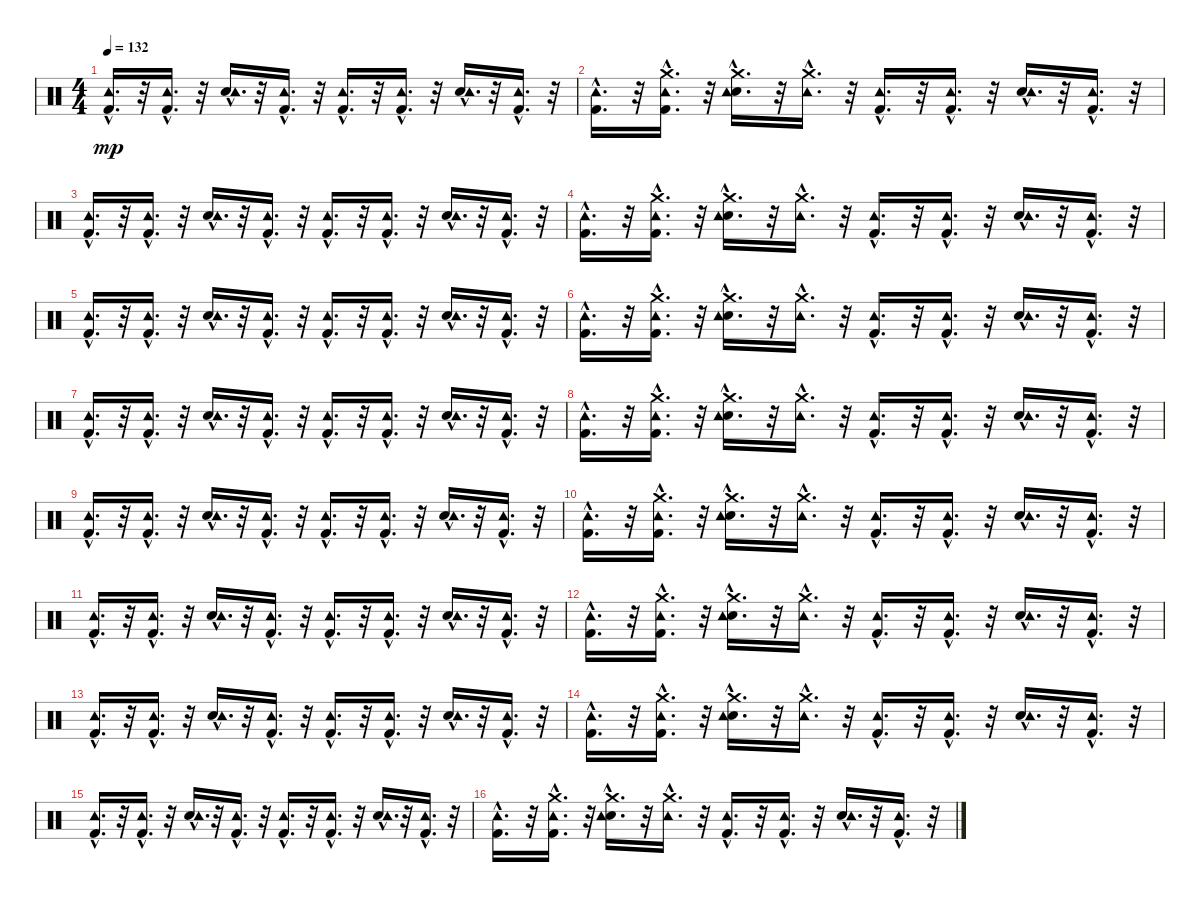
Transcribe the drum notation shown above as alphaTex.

\track "" {instrument percussion}
\staff {score}
\articulation defaults
\ts (4 4)
\tempo 132
\clef neutral
\ks c
("Kick (hit) 2"{hac} "Tambourine (hit)"{hac}).16{d dy mp} r.32 ("Kick (hit) 2"{hac} "Tambourine (hit)"{hac}).16{d} r.32 ("Snare (hit) 2"{hac} "Tambourine (hit)"{hac}).16{d} r.32 ("Kick (hit) 2"{hac} "Tambourine (hit)"{hac}).16{d} r.32 ("Kick (hit) 2"{hac} "Tambourine (hit)"{hac}).16{d} r.32 ("Kick (hit) 2"{hac} "Tambourine (hit)"{hac}).16{d} r.32 ("Snare (hit) 2"{hac} "Tambourine (hit)"{hac}).16{d} r.32 ("Kick (hit) 2"{hac} "Tambourine (hit)"{hac}).16{d} r.32 |
("Kick (hit) 2"{hac} "Tambourine (hit)"{hac}).16{d} r.32 ("Crash medium (hit)"{hac} "Kick (hit) 2"{hac} "Tambourine (hit)"{hac}).16{d} r.32 ("Crash medium (hit)"{hac} "Snare (hit) 2"{hac} "Tambourine (hit)"{hac}).16{d} r.32 ("Crash medium (hit)"{hac} "Tambourine (hit)"{hac}).16{d} r.32 ("Kick (hit) 2"{hac} "Tambourine (hit)"{hac}).16{d} r.32 ("Kick (hit) 2"{hac} "Tambourine (hit)"{hac}).16{d} r.32 ("Snare (hit) 2"{hac} "Tambourine (hit)"{hac}).16{d} r.32 ("Kick (hit) 2"{hac} "Tambourine (hit)"{hac}).16{d} r.32 |
("Kick (hit) 2"{hac} "Tambourine (hit)"{hac}).16{d} r.32 ("Kick (hit) 2"{hac} "Tambourine (hit)"{hac}).16{d} r.32 ("Snare (hit) 2"{hac} "Tambourine (hit)"{hac}).16{d} r.32 ("Kick (hit) 2"{hac} "Tambourine (hit)"{hac}).16{d} r.32 ("Kick (hit) 2"{hac} "Tambourine (hit)"{hac}).16{d} r.32 ("Kick (hit) 2"{hac} "Tambourine (hit)"{hac}).16{d} r.32 ("Snare (hit) 2"{hac} "Tambourine (hit)"{hac}).16{d} r.32 ("Kick (hit) 2"{hac} "Tambourine (hit)"{hac}).16{d} r.32 |
("Kick (hit) 2"{hac} "Tambourine (hit)"{hac}).16{d} r.32 ("Crash medium (hit)"{hac} "Kick (hit) 2"{hac} "Tambourine (hit)"{hac}).16{d} r.32 ("Crash medium (hit)"{hac} "Snare (hit) 2"{hac} "Tambourine (hit)"{hac}).16{d} r.32 ("Crash medium (hit)"{hac} "Tambourine (hit)"{hac}).16{d} r.32 ("Kick (hit) 2"{hac} "Tambourine (hit)"{hac}).16{d} r.32 ("Kick (hit) 2"{hac} "Tambourine (hit)"{hac}).16{d} r.32 ("Snare (hit) 2"{hac} "Tambourine (hit)"{hac}).16{d} r.32 ("Kick (hit) 2"{hac} "Tambourine (hit)"{hac}).16{d} r.32 |
("Kick (hit) 2"{hac} "Tambourine (hit)"{hac}).16{d} r.32 ("Kick (hit) 2"{hac} "Tambourine (hit)"{hac}).16{d} r.32 ("Snare (hit) 2"{hac} "Tambourine (hit)"{hac}).16{d} r.32 ("Kick (hit) 2"{hac} "Tambourine (hit)"{hac}).16{d} r.32 ("Kick (hit) 2"{hac} "Tambourine (hit)"{hac}).16{d} r.32 ("Kick (hit) 2"{hac} "Tambourine (hit)"{hac}).16{d} r.32 ("Snare (hit) 2"{hac} "Tambourine (hit)"{hac}).16{d} r.32 ("Kick (hit) 2"{hac} "Tambourine (hit)"{hac}).16{d} r.32 |
("Kick (hit) 2"{hac} "Tambourine (hit)"{hac}).16{d} r.32 ("Crash medium (hit)"{hac} "Kick (hit) 2"{hac} "Tambourine (hit)"{hac}).16{d} r.32 ("Crash medium (hit)"{hac} "Snare (hit) 2"{hac} "Tambourine (hit)"{hac}).16{d} r.32 ("Crash medium (hit)"{hac} "Tambourine (hit)"{hac}).16{d} r.32 ("Kick (hit) 2"{hac} "Tambourine (hit)"{hac}).16{d} r.32 ("Kick (hit) 2"{hac} "Tambourine (hit)"{hac}).16{d} r.32 ("Snare (hit) 2"{hac} "Tambourine (hit)"{hac}).16{d} r.32 ("Kick (hit) 2"{hac} "Tambourine (hit)"{hac}).16{d} r.32 |
("Kick (hit) 2"{hac} "Tambourine (hit)"{hac}).16{d} r.32 ("Kick (hit) 2"{hac} "Tambourine (hit)"{hac}).16{d} r.32 ("Snare (hit) 2"{hac} "Tambourine (hit)"{hac}).16{d} r.32 ("Kick (hit) 2"{hac} "Tambourine (hit)"{hac}).16{d} r.32 ("Kick (hit) 2"{hac} "Tambourine (hit)"{hac}).16{d} r.32 ("Kick (hit) 2"{hac} "Tambourine (hit)"{hac}).16{d} r.32 ("Snare (hit) 2"{hac} "Tambourine (hit)"{hac}).16{d} r.32 ("Kick (hit) 2"{hac} "Tambourine (hit)"{hac}).16{d} r.32 |
("Kick (hit) 2"{hac} "Tambourine (hit)"{hac}).16{d} r.32 ("Crash medium (hit)"{hac} "Kick (hit) 2"{hac} "Tambourine (hit)"{hac}).16{d} r.32 ("Crash medium (hit)"{hac} "Snare (hit) 2"{hac} "Tambourine (hit)"{hac}).16{d} r.32 ("Crash medium (hit)"{hac} "Tambourine (hit)"{hac}).16{d} r.32 ("Kick (hit) 2"{hac} "Tambourine (hit)"{hac}).16{d} r.32 ("Kick (hit) 2"{hac} "Tambourine (hit)"{hac}).16{d} r.32 ("Snare (hit) 2"{hac} "Tambourine (hit)"{hac}).16{d} r.32 ("Kick (hit) 2"{hac} "Tambourine (hit)"{hac}).16{d} r.32 |
("Kick (hit) 2"{hac} "Tambourine (hit)"{hac}).16{d} r.32 ("Kick (hit) 2"{hac} "Tambourine (hit)"{hac}).16{d} r.32 ("Snare (hit) 2"{hac} "Tambourine (hit)"{hac}).16{d} r.32 ("Kick (hit) 2"{hac} "Tambourine (hit)"{hac}).16{d} r.32 ("Kick (hit) 2"{hac} "Tambourine (hit)"{hac}).16{d} r.32 ("Kick (hit) 2"{hac} "Tambourine (hit)"{hac}).16{d} r.32 ("Snare (hit) 2"{hac} "Tambourine (hit)"{hac}).16{d} r.32 ("Kick (hit) 2"{hac} "Tambourine (hit)"{hac}).16{d} r.32 |
("Kick (hit) 2"{hac} "Tambourine (hit)"{hac}).16{d} r.32 ("Crash medium (hit)"{hac} "Kick (hit) 2"{hac} "Tambourine (hit)"{hac}).16{d} r.32 ("Crash medium (hit)"{hac} "Snare (hit) 2"{hac} "Tambourine (hit)"{hac}).16{d} r.32 ("Crash medium (hit)"{hac} "Tambourine (hit)"{hac}).16{d} r.32 ("Kick (hit) 2"{hac} "Tambourine (hit)"{hac}).16{d} r.32 ("Kick (hit) 2"{hac} "Tambourine (hit)"{hac}).16{d} r.32 ("Snare (hit) 2"{hac} "Tambourine (hit)"{hac}).16{d} r.32 ("Kick (hit) 2"{hac} "Tambourine (hit)"{hac}).16{d} r.32 |
("Kick (hit) 2"{hac} "Tambourine (hit)"{hac}).16{d} r.32 ("Kick (hit) 2"{hac} "Tambourine (hit)"{hac}).16{d} r.32 ("Snare (hit) 2"{hac} "Tambourine (hit)"{hac}).16{d} r.32 ("Kick (hit) 2"{hac} "Tambourine (hit)"{hac}).16{d} r.32 ("Kick (hit) 2"{hac} "Tambourine (hit)"{hac}).16{d} r.32 ("Kick (hit) 2"{hac} "Tambourine (hit)"{hac}).16{d} r.32 ("Snare (hit) 2"{hac} "Tambourine (hit)"{hac}).16{d} r.32 ("Kick (hit) 2"{hac} "Tambourine (hit)"{hac}).16{d} r.32 |
("Kick (hit) 2"{hac} "Tambourine (hit)"{hac}).16{d} r.32 ("Crash medium (hit)"{hac} "Kick (hit) 2"{hac} "Tambourine (hit)"{hac}).16{d} r.32 ("Crash medium (hit)"{hac} "Snare (hit) 2"{hac} "Tambourine (hit)"{hac}).16{d} r.32 ("Crash medium (hit)"{hac} "Tambourine (hit)"{hac}).16{d} r.32 ("Kick (hit) 2"{hac} "Tambourine (hit)"{hac}).16{d} r.32 ("Kick (hit) 2"{hac} "Tambourine (hit)"{hac}).16{d} r.32 ("Snare (hit) 2"{hac} "Tambourine (hit)"{hac}).16{d} r.32 ("Kick (hit) 2"{hac} "Tambourine (hit)"{hac}).16{d} r.32 |
("Kick (hit) 2"{hac} "Tambourine (hit)"{hac}).16{d} r.32 ("Kick (hit) 2"{hac} "Tambourine (hit)"{hac}).16{d} r.32 ("Snare (hit) 2"{hac} "Tambourine (hit)"{hac}).16{d} r.32 ("Kick (hit) 2"{hac} "Tambourine (hit)"{hac}).16{d} r.32 ("Kick (hit) 2"{hac} "Tambourine (hit)"{hac}).16{d} r.32 ("Kick (hit) 2"{hac} "Tambourine (hit)"{hac}).16{d} r.32 ("Snare (hit) 2"{hac} "Tambourine (hit)"{hac}).16{d} r.32 ("Kick (hit) 2"{hac} "Tambourine (hit)"{hac}).16{d} r.32 |
("Kick (hit) 2"{hac} "Tambourine (hit)"{hac}).16{d} r.32 ("Crash medium (hit)"{hac} "Kick (hit) 2"{hac} "Tambourine (hit)"{hac}).16{d} r.32 ("Crash medium (hit)"{hac} "Snare (hit) 2"{hac} "Tambourine (hit)"{hac}).16{d} r.32 ("Crash medium (hit)"{hac} "Tambourine (hit)"{hac}).16{d} r.32 ("Kick (hit) 2"{hac} "Tambourine (hit)"{hac}).16{d} r.32 ("Kick (hit) 2"{hac} "Tambourine (hit)"{hac}).16{d} r.32 ("Snare (hit) 2"{hac} "Tambourine (hit)"{hac}).16{d} r.32 ("Kick (hit) 2"{hac} "Tambourine (hit)"{hac}).16{d} r.32 |
("Kick (hit) 2"{hac} "Tambourine (hit)"{hac}).16{d} r.32 ("Kick (hit) 2"{hac} "Tambourine (hit)"{hac}).16{d} r.32 ("Snare (hit) 2"{hac} "Tambourine (hit)"{hac}).16{d} r.32 ("Kick (hit) 2"{hac} "Tambourine (hit)"{hac}).16{d} r.32 ("Kick (hit) 2"{hac} "Tambourine (hit)"{hac}).16{d} r.32 ("Kick (hit) 2"{hac} "Tambourine (hit)"{hac}).16{d} r.32 ("Snare (hit) 2"{hac} "Tambourine (hit)"{hac}).16{d} r.32 ("Kick (hit) 2"{hac} "Tambourine (hit)"{hac}).16{d} r.32 |
("Kick (hit) 2"{hac} "Tambourine (hit)"{hac}).16{d} r.32 ("Crash medium (hit)"{hac} "Kick (hit) 2"{hac} "Tambourine (hit)"{hac}).16{d} r.32 ("Crash medium (hit)"{hac} "Snare (hit) 2"{hac} "Tambourine (hit)"{hac}).16{d} r.32 ("Crash medium (hit)"{hac} "Tambourine (hit)"{hac}).16{d} r.32 ("Kick (hit) 2"{hac} "Tambourine (hit)"{hac}).16{d} r.32 ("Kick (hit) 2"{hac} "Tambourine (hit)"{hac}).16{d} r.32 ("Snare (hit) 2"{hac} "Tambourine (hit)"{hac}).16{d} r.32 ("Kick (hit) 2"{hac} "Tambourine (hit)"{hac}).16{d} r.32
